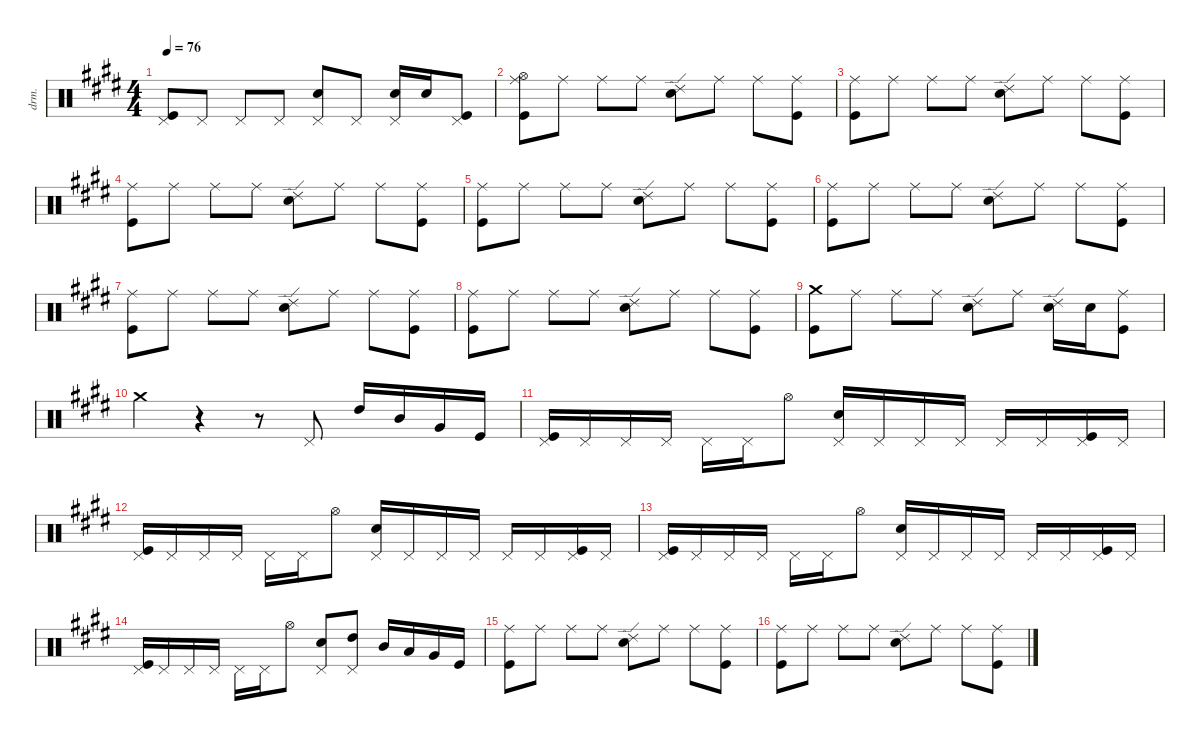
\defaultSystemsLayout 4
\hideDynamics
\bracketExtendMode nobrackets
\otherSystemsTrackNameOrientation horizontal
\track ("Drums" "drm.") {instrument percussion}
\staff {score}
\articulation defaults
\ts (4 4)
\tempo 76
\clef neutral
\ks c#minor
("Pedal Hi-Hat (hit)"{acc forcenatural} "Kick (hit)"{acc forcenatural}).8{dy f} "Pedal Hi-Hat (hit)"{acc forcenatural}.8 "Pedal Hi-Hat (hit)"{acc forcenatural}.8 "Pedal Hi-Hat (hit)"{acc forcenatural}.8 ("Snare (hit) 2"{acc forcenatural} "Pedal Hi-Hat (hit)"{acc forcenatural}).8 "Pedal Hi-Hat (hit)"{acc forcenatural}.8 ("Snare (hit) 2"{acc forcenatural} "Pedal Hi-Hat (hit)"{acc forcenatural}).16 "Snare (hit) 2"{acc forcenatural}.16 ("Kick (hit)"{acc forcenatural} "Pedal Hi-Hat (hit)"{acc forcenatural}).8 |
("Ride (middle)"{acc forcenatural} "Kick (hit)"{acc forcenatural} "Hi-Hat (open)"{acc forcenatural}).8 "Ride (middle)"{acc forcenatural}.8 "Ride (middle)"{acc forcenatural}.8 "Ride (middle)"{acc forcenatural}.8 ("Snare (hit) 2"{acc forcenatural} "Ride (edge) 2"{acc forcenatural}).8 "Ride (middle)"{acc forcenatural}.8 "Ride (middle)"{acc forcenatural}.8 ("Kick (hit)"{acc forcenatural} "Ride (middle)"{acc forcenatural}).8 |
("Ride (middle)"{acc forcenatural} "Kick (hit)"{acc forcenatural}).8 "Ride (middle)"{acc forcenatural}.8 "Ride (middle)"{acc forcenatural}.8 "Ride (middle)"{acc forcenatural}.8 ("Snare (hit) 2"{acc forcenatural} "Ride (edge) 2"{acc forcenatural}).8 "Ride (middle)"{acc forcenatural}.8 "Ride (middle)"{acc forcenatural}.8 ("Kick (hit)"{acc forcenatural} "Ride (middle)"{acc forcenatural}).8 |
("Ride (middle)"{acc forcenatural} "Kick (hit)"{acc forcenatural}).8 "Ride (middle)"{acc forcenatural}.8 "Ride (middle)"{acc forcenatural}.8 "Ride (middle)"{acc forcenatural}.8 ("Snare (hit) 2"{acc forcenatural} "Ride (edge) 2"{acc forcenatural}).8 "Ride (middle)"{acc forcenatural}.8 "Ride (middle)"{acc forcenatural}.8 ("Kick (hit)"{acc forcenatural} "Ride (middle)"{acc forcenatural}).8 |
("Ride (middle)"{acc forcenatural} "Kick (hit)"{acc forcenatural}).8 "Ride (middle)"{acc forcenatural}.8 "Ride (middle)"{acc forcenatural}.8 "Ride (middle)"{acc forcenatural}.8 ("Snare (hit) 2"{acc forcenatural} "Ride (edge) 2"{acc forcenatural}).8 "Ride (middle)"{acc forcenatural}.8 "Ride (middle)"{acc forcenatural}.8 ("Kick (hit)"{acc forcenatural} "Ride (middle)"{acc forcenatural}).8 |
("Ride (middle)"{acc forcenatural} "Kick (hit)"{acc forcenatural}).8 "Ride (middle)"{acc forcenatural}.8 "Ride (middle)"{acc forcenatural}.8 "Ride (middle)"{acc forcenatural}.8 ("Snare (hit) 2"{acc forcenatural} "Ride (edge) 2"{acc forcenatural}).8 "Ride (middle)"{acc forcenatural}.8 "Ride (middle)"{acc forcenatural}.8 ("Kick (hit)"{acc forcenatural} "Ride (middle)"{acc forcenatural}).8 |
("Ride (middle)"{acc forcenatural} "Kick (hit)"{acc forcenatural}).8 "Ride (middle)"{acc forcenatural}.8 "Ride (middle)"{acc forcenatural}.8 "Ride (middle)"{acc forcenatural}.8 ("Snare (hit) 2"{acc forcenatural} "Ride (edge) 2"{acc forcenatural}).8 "Ride (middle)"{acc forcenatural}.8 "Ride (middle)"{acc forcenatural}.8 ("Kick (hit)"{acc forcenatural} "Ride (middle)"{acc forcenatural}).8 |
("Ride (middle)"{acc forcenatural} "Kick (hit)"{acc forcenatural}).8 "Ride (middle)"{acc forcenatural}.8 "Ride (middle)"{acc forcenatural}.8 "Ride (middle)"{acc forcenatural}.8 ("Snare (hit) 2"{acc forcenatural} "Ride (edge) 2"{acc forcenatural}).8 "Ride (middle)"{acc forcenatural}.8 "Ride (middle)"{acc forcenatural}.8 ("Kick (hit)"{acc forcenatural} "Ride (middle)"{acc forcenatural}).8 |
("Crash medium (hit)"{acc forcenatural} "Kick (hit)"{acc forcenatural}).8 "Ride (middle)"{acc forcenatural}.8 "Ride (middle)"{acc forcenatural}.8 "Ride (middle)"{acc forcenatural}.8 ("Snare (hit) 2"{acc forcenatural} "Ride (edge) 2"{acc forcenatural}).8 "Ride (middle)"{acc forcenatural}.8 ("Snare (hit) 2"{acc forcenatural} "Ride (edge) 2"{acc forcenatural}).16 "Snare (hit) 2"{acc forcenatural}.16 ("Kick (hit)"{acc forcenatural} "Ride (middle)"{acc forcenatural}).8 |
"Crash medium (hit)"{acc forcenatural}.4 r.4 r.8 "Pedal Hi-Hat (hit)"{acc forcenatural}.8 "High Tom (hit)"{acc forcenatural}.16 "Mid Tom (hit)"{acc forcenatural}.16 "Very Low Tom (hit)"{acc forcenatural}.16 "Kick (hit)"{acc forcenatural}.16 |
("Pedal Hi-Hat (hit)"{acc forcenatural} "Kick (hit)"{acc forcenatural}).16 "Pedal Hi-Hat (hit)"{acc forcenatural}.16 "Pedal Hi-Hat (hit)"{acc forcenatural}.16 "Pedal Hi-Hat (hit)"{acc forcenatural}.16 "Pedal Hi-Hat (hit)"{acc forcenatural}.16 "Pedal Hi-Hat (hit)"{acc forcenatural}.16 "Hi-Hat (open)"{acc forcenatural}.8 ("Snare (hit) 2"{acc forcenatural} "Pedal Hi-Hat (hit)"{acc forcenatural}).16 "Pedal Hi-Hat (hit)"{acc forcenatural}.16 "Pedal Hi-Hat (hit)"{acc forcenatural}.16 "Pedal Hi-Hat (hit)"{acc forcenatural}.16 "Pedal Hi-Hat (hit)"{acc forcenatural}.16 "Pedal Hi-Hat (hit)"{acc forcenatural}.16 ("Pedal Hi-Hat (hit)"{acc forcenatural} "Kick (hit)"{acc forcenatural}).16 "Pedal Hi-Hat (hit)"{acc forcenatural}.16 |
("Pedal Hi-Hat (hit)"{acc forcenatural} "Kick (hit)"{acc forcenatural}).16 "Pedal Hi-Hat (hit)"{acc forcenatural}.16 "Pedal Hi-Hat (hit)"{acc forcenatural}.16 "Pedal Hi-Hat (hit)"{acc forcenatural}.16 "Pedal Hi-Hat (hit)"{acc forcenatural}.16 "Pedal Hi-Hat (hit)"{acc forcenatural}.16 "Hi-Hat (open)"{acc forcenatural}.8 ("Snare (hit) 2"{acc forcenatural} "Pedal Hi-Hat (hit)"{acc forcenatural}).16 "Pedal Hi-Hat (hit)"{acc forcenatural}.16 "Pedal Hi-Hat (hit)"{acc forcenatural}.16 "Pedal Hi-Hat (hit)"{acc forcenatural}.16 "Pedal Hi-Hat (hit)"{acc forcenatural}.16 "Pedal Hi-Hat (hit)"{acc forcenatural}.16 ("Pedal Hi-Hat (hit)"{acc forcenatural} "Kick (hit)"{acc forcenatural}).16 "Pedal Hi-Hat (hit)"{acc forcenatural}.16 |
("Pedal Hi-Hat (hit)"{acc forcenatural} "Kick (hit)"{acc forcenatural}).16 "Pedal Hi-Hat (hit)"{acc forcenatural}.16 "Pedal Hi-Hat (hit)"{acc forcenatural}.16 "Pedal Hi-Hat (hit)"{acc forcenatural}.16 "Pedal Hi-Hat (hit)"{acc forcenatural}.16 "Pedal Hi-Hat (hit)"{acc forcenatural}.16 "Hi-Hat (open)"{acc forcenatural}.8 ("Snare (hit) 2"{acc forcenatural} "Pedal Hi-Hat (hit)"{acc forcenatural}).16 "Pedal Hi-Hat (hit)"{acc forcenatural}.16 "Pedal Hi-Hat (hit)"{acc forcenatural}.16 "Pedal Hi-Hat (hit)"{acc forcenatural}.16 "Pedal Hi-Hat (hit)"{acc forcenatural}.16 "Pedal Hi-Hat (hit)"{acc forcenatural}.16 ("Pedal Hi-Hat (hit)"{acc forcenatural} "Kick (hit)"{acc forcenatural}).16 "Pedal Hi-Hat (hit)"{acc forcenatural}.16 |
("Pedal Hi-Hat (hit)"{acc forcenatural} "Kick (hit)"{acc forcenatural}).16 "Pedal Hi-Hat (hit)"{acc forcenatural}.16 "Pedal Hi-Hat (hit)"{acc forcenatural}.16 "Pedal Hi-Hat (hit)"{acc forcenatural}.16 "Pedal Hi-Hat (hit)"{acc forcenatural}.16 "Pedal Hi-Hat (hit)"{acc forcenatural}.16 "Hi-Hat (open)"{acc forcenatural}.8 ("Snare (hit) 2"{acc forcenatural} "Pedal Hi-Hat (hit)"{acc forcenatural}).8 ("High Tom (hit)"{acc forcenatural} "Pedal Hi-Hat (hit)"{acc forcenatural}).8 "Mid Tom (hit)"{acc forcenatural}.16 "Low Tom (hit)"{acc forcenatural}.16 "Very Low Tom (hit)"{acc forcenatural}.16 "Kick (hit)"{acc forcenatural}.16 |
("Ride (middle)"{acc forcenatural} "Kick (hit)"{acc forcenatural}).8 "Ride (middle)"{acc forcenatural}.8 "Ride (middle)"{acc forcenatural}.8 "Ride (middle)"{acc forcenatural}.8 ("Snare (hit) 2"{acc forcenatural} "Ride (edge) 2"{acc forcenatural}).8 "Ride (middle)"{acc forcenatural}.8 "Ride (middle)"{acc forcenatural}.8 ("Kick (hit)"{acc forcenatural} "Ride (middle)"{acc forcenatural}).8 |
("Ride (middle)"{acc forcenatural} "Kick (hit)"{acc forcenatural}).8 "Ride (middle)"{acc forcenatural}.8 "Ride (middle)"{acc forcenatural}.8 "Ride (middle)"{acc forcenatural}.8 ("Snare (hit) 2"{acc forcenatural} "Ride (edge) 2"{acc forcenatural}).8 "Ride (middle)"{acc forcenatural}.8 "Ride (middle)"{acc forcenatural}.8 ("Kick (hit)"{acc forcenatural} "Ride (middle)"{acc forcenatural}).8
